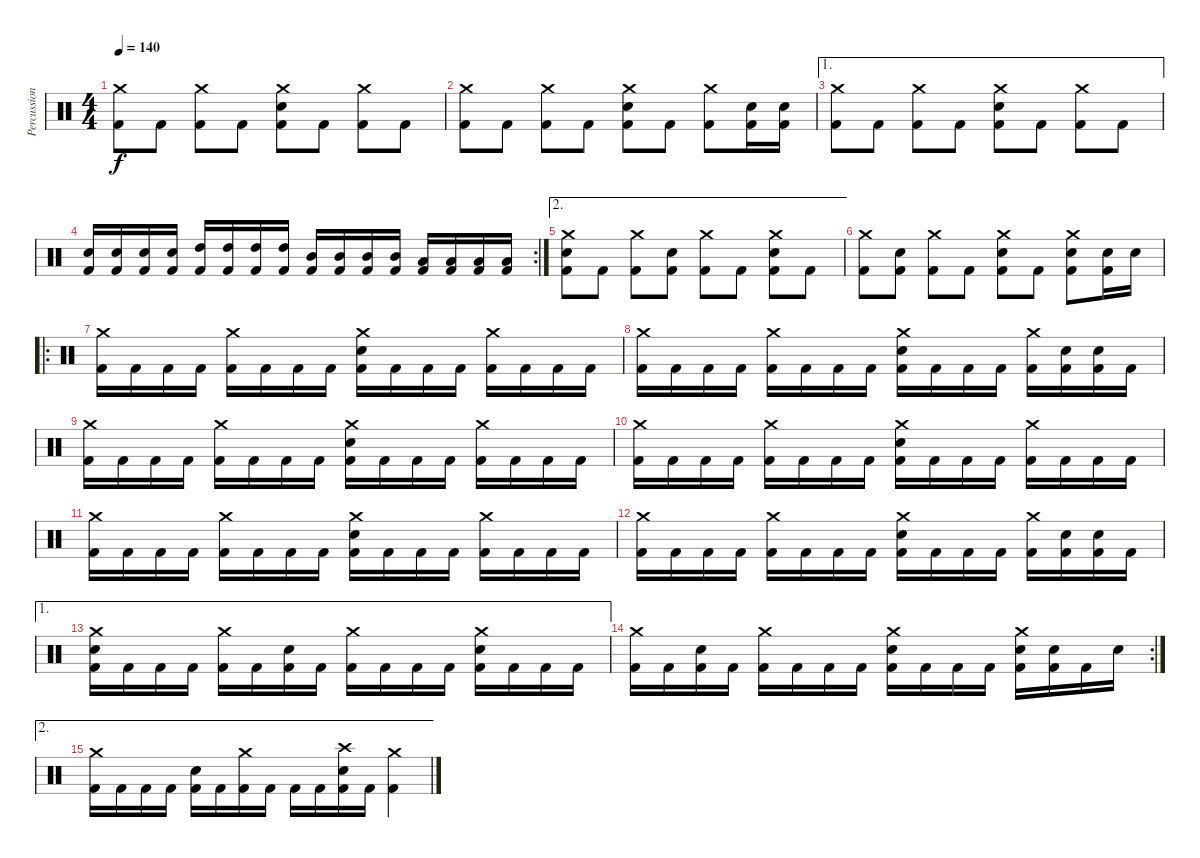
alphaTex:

\track ("Percussion" "Percussion") {instrument percussion}
\staff {score}
\articulation defaults
\ts (4 4)
\tempo 140
\clef neutral
\ks c
("Crash medium (hit)" "Kick (hit) 2").8{dy f} "Kick (hit) 2".8 ("Crash medium (hit)" "Kick (hit) 2").8 "Kick (hit) 2".8 ("Crash medium (hit)" "Electric Snare (hit)" "Kick (hit) 2").8 "Kick (hit) 2".8 ("Crash medium (hit)" "Kick (hit) 2").8 "Kick (hit) 2".8 |
("Crash medium (hit)" "Kick (hit) 2").8 "Kick (hit) 2".8 ("Crash medium (hit)" "Kick (hit) 2").8 "Kick (hit) 2".8 ("Crash medium (hit)" "Electric Snare (hit)" "Kick (hit) 2").8 "Kick (hit) 2".8 ("Crash medium (hit)" "Kick (hit) 2").8 ("Electric Snare (hit)" "Kick (hit) 2").16 ("Electric Snare (hit)" "Kick (hit) 2").16 |
\ae 1
("Crash medium (hit)" "Kick (hit) 2").8 "Kick (hit) 2".8 ("Crash medium (hit)" "Kick (hit) 2").8 "Kick (hit) 2".8 ("Crash medium (hit)" "Electric Snare (hit)" "Kick (hit) 2").8 "Kick (hit) 2".8 ("Crash medium (hit)" "Kick (hit) 2").8 "Kick (hit) 2".8 |
\rc 2
("Electric Snare (hit)" "Kick (hit) 2").16 ("Electric Snare (hit)" "Kick (hit) 2").16 ("Electric Snare (hit)" "Kick (hit) 2").16 ("Electric Snare (hit)" "Kick (hit) 2").16 ("High Tom (hit)" "Kick (hit) 2").16 ("High Tom (hit)" "Kick (hit) 2").16 ("High Tom (hit)" "Kick (hit) 2").16 ("High Tom (hit)" "Kick (hit) 2").16 ("Mid Tom (hit)" "Kick (hit) 2").16 ("Mid Tom (hit)" "Kick (hit) 2").16 ("Mid Tom (hit)" "Kick (hit) 2").16 ("Mid Tom (hit)" "Kick (hit) 2").16 ("Low Tom (hit)" "Kick (hit) 2").16 ("Low Tom (hit)" "Kick (hit) 2").16 ("Low Tom (hit)" "Kick (hit) 2").16 ("Low Tom (hit)" "Kick (hit) 2").16 |
\ae 2
("Crash medium (hit)" "Electric Snare (hit)" "Kick (hit) 2").8 "Kick (hit) 2".8 ("Crash medium (hit)" "Kick (hit) 2").8 ("Electric Snare (hit)" "Kick (hit) 2").8 ("Crash medium (hit)" "Kick (hit) 2").8 "Kick (hit) 2".8 ("Crash medium (hit)" "Electric Snare (hit)" "Kick (hit) 2").8 "Kick (hit) 2".8 |
("Crash medium (hit)" "Kick (hit) 2").8 ("Electric Snare (hit)" "Kick (hit) 2").8 ("Crash medium (hit)" "Kick (hit) 2").8 "Kick (hit) 2".8 ("Crash medium (hit)" "Electric Snare (hit)" "Kick (hit) 2").8 "Kick (hit) 2".8 ("Crash medium (hit)" "Electric Snare (hit)" "Kick (hit) 2").8 ("Electric Snare (hit)" "Kick (hit) 2").16 "Electric Snare (hit)".16 |
\ro
("Crash medium (hit)" "Kick (hit) 2").16 "Kick (hit) 2".16 "Kick (hit) 2".16 "Kick (hit) 2".16 ("Crash medium (hit)" "Kick (hit) 2").16 "Kick (hit) 2".16 "Kick (hit) 2".16 "Kick (hit) 2".16 ("Crash medium (hit)" "Electric Snare (hit)" "Kick (hit) 2").16 "Kick (hit) 2".16 "Kick (hit) 2".16 "Kick (hit) 2".16 ("Crash medium (hit)" "Kick (hit) 2").16 "Kick (hit) 2".16 "Kick (hit) 2".16 "Kick (hit) 2".16 |
("Crash medium (hit)" "Kick (hit) 2").16 "Kick (hit) 2".16 "Kick (hit) 2".16 "Kick (hit) 2".16 ("Crash medium (hit)" "Kick (hit) 2").16 "Kick (hit) 2".16 "Kick (hit) 2".16 "Kick (hit) 2".16 ("Crash medium (hit)" "Electric Snare (hit)" "Kick (hit) 2").16 "Kick (hit) 2".16 "Kick (hit) 2".16 "Kick (hit) 2".16 ("Crash medium (hit)" "Kick (hit) 2").16 ("Electric Snare (hit)" "Kick (hit) 2").16 ("Electric Snare (hit)" "Kick (hit) 2").16 "Kick (hit) 2".16 |
("Crash medium (hit)" "Kick (hit) 2").16 "Kick (hit) 2".16 "Kick (hit) 2".16 "Kick (hit) 2".16 ("Crash medium (hit)" "Kick (hit) 2").16 "Kick (hit) 2".16 "Kick (hit) 2".16 "Kick (hit) 2".16 ("Crash medium (hit)" "Electric Snare (hit)" "Kick (hit) 2").16 "Kick (hit) 2".16 "Kick (hit) 2".16 "Kick (hit) 2".16 ("Crash medium (hit)" "Kick (hit) 2").16 "Kick (hit) 2".16 "Kick (hit) 2".16 "Kick (hit) 2".16 |
("Crash medium (hit)" "Kick (hit) 2").16 "Kick (hit) 2".16 "Kick (hit) 2".16 "Kick (hit) 2".16 ("Crash medium (hit)" "Kick (hit) 2").16 "Kick (hit) 2".16 "Kick (hit) 2".16 "Kick (hit) 2".16 ("Crash medium (hit)" "Electric Snare (hit)" "Kick (hit) 2").16 "Kick (hit) 2".16 "Kick (hit) 2".16 "Kick (hit) 2".16 ("Crash medium (hit)" "Kick (hit) 2").16 "Kick (hit) 2".16 "Kick (hit) 2".16 "Kick (hit) 2".16 |
("Crash medium (hit)" "Kick (hit) 2").16 "Kick (hit) 2".16 "Kick (hit) 2".16 "Kick (hit) 2".16 ("Crash medium (hit)" "Kick (hit) 2").16 "Kick (hit) 2".16 "Kick (hit) 2".16 "Kick (hit) 2".16 ("Crash medium (hit)" "Electric Snare (hit)" "Kick (hit) 2").16 "Kick (hit) 2".16 "Kick (hit) 2".16 "Kick (hit) 2".16 ("Crash medium (hit)" "Kick (hit) 2").16 "Kick (hit) 2".16 "Kick (hit) 2".16 "Kick (hit) 2".16 |
("Crash medium (hit)" "Kick (hit) 2").16 "Kick (hit) 2".16 "Kick (hit) 2".16 "Kick (hit) 2".16 ("Crash medium (hit)" "Kick (hit) 2").16 "Kick (hit) 2".16 "Kick (hit) 2".16 "Kick (hit) 2".16 ("Crash medium (hit)" "Electric Snare (hit)" "Kick (hit) 2").16 "Kick (hit) 2".16 "Kick (hit) 2".16 "Kick (hit) 2".16 ("Crash medium (hit)" "Kick (hit) 2").16 ("Electric Snare (hit)" "Kick (hit) 2").16 ("Electric Snare (hit)" "Kick (hit) 2").16 "Kick (hit) 2".16 |
\ae 1
("Crash medium (hit)" "Electric Snare (hit)" "Kick (hit) 2").16 "Kick (hit) 2".16 "Kick (hit) 2".16 "Kick (hit) 2".16 ("Crash medium (hit)" "Kick (hit) 2").16 "Kick (hit) 2".16 ("Electric Snare (hit)" "Kick (hit) 2").16 "Kick (hit) 2".16 ("Crash medium (hit)" "Kick (hit) 2").16 "Kick (hit) 2".16 "Kick (hit) 2".16 "Kick (hit) 2".16 ("Crash medium (hit)" "Electric Snare (hit)" "Kick (hit) 2").16 "Kick (hit) 2".16 "Kick (hit) 2".16 "Kick (hit) 2".16 |
\rc 2
("Crash medium (hit)" "Kick (hit) 2").16 "Kick (hit) 2".16 ("Electric Snare (hit)" "Kick (hit) 2").16 "Kick (hit) 2".16 ("Crash medium (hit)" "Kick (hit) 2").16 "Kick (hit) 2".16 "Kick (hit) 2".16 "Kick (hit) 2".16 ("Crash medium (hit)" "Electric Snare (hit)" "Kick (hit) 2").16 "Kick (hit) 2".16 "Kick (hit) 2".16 "Kick (hit) 2".16 ("Crash medium (hit)" "Electric Snare (hit)" "Kick (hit) 2").16 ("Electric Snare (hit)" "Kick (hit) 2").16 "Kick (hit) 2".16 "Electric Snare (hit)".16 |
\ae 2
("Crash medium (hit)" "Kick (hit) 2").16 "Kick (hit) 2".16 "Kick (hit) 2".16 "Kick (hit) 2".16 ("Electric Snare (hit)" "Kick (hit) 2").16 "Kick (hit) 2".16 ("Crash medium (hit)" "Kick (hit) 2").16 "Kick (hit) 2".16 "Kick (hit) 2".16 "Kick (hit) 2".16 ("Crash high (hit)" "Electric Snare (hit)" "Kick (hit) 2").16 "Kick (hit) 2".16 ("Crash medium (hit)" "Kick (hit) 2").4
